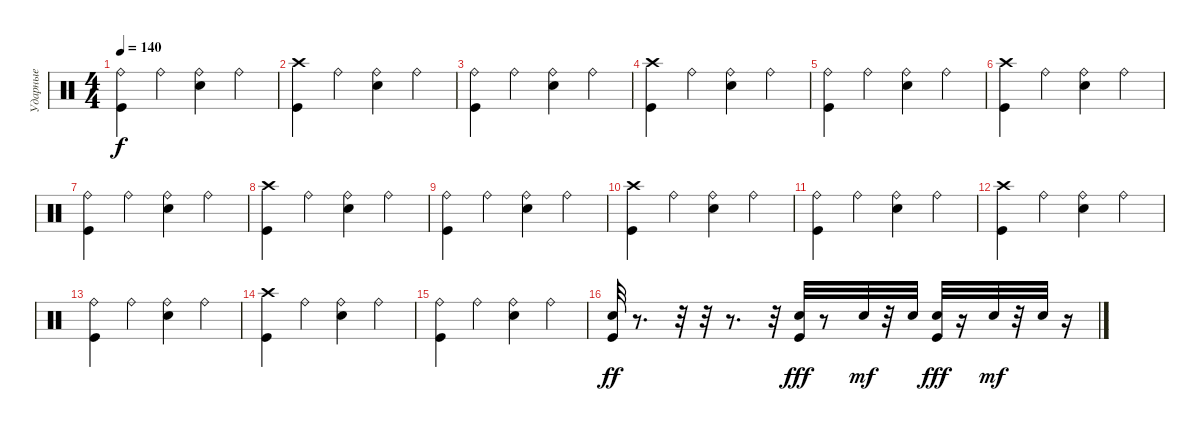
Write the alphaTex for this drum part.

\track ("Ударные" "Ударные") {instrument percussion}
\staff {score}
\articulation defaults
\ts (4 4)
\tempo 140
\clef neutral
\ks c
("Ride (bell)" "Kick (hit)").4{dy f} "Ride (bell)".4 ("Ride (bell)" "Electric Snare (hit)").4 "Ride (bell)".4 |
("Crash high (hit)" "Kick (hit)").4 "Ride (bell)".4 ("Ride (bell)" "Electric Snare (hit)").4 "Ride (bell)".4 |
("Ride (bell)" "Kick (hit)").4 "Ride (bell)".4 ("Ride (bell)" "Electric Snare (hit)").4 "Ride (bell)".4 |
("Crash high (hit)" "Kick (hit)").4 "Ride (bell)".4 ("Ride (bell)" "Electric Snare (hit)").4 "Ride (bell)".4 |
("Ride (bell)" "Kick (hit)").4 "Ride (bell)".4 ("Ride (bell)" "Electric Snare (hit)").4 "Ride (bell)".4 |
("Crash high (hit)" "Kick (hit)").4 "Ride (bell)".4 ("Ride (bell)" "Electric Snare (hit)").4 "Ride (bell)".4 |
("Ride (bell)" "Kick (hit)").4 "Ride (bell)".4 ("Ride (bell)" "Electric Snare (hit)").4 "Ride (bell)".4 |
("Crash high (hit)" "Kick (hit)").4 "Ride (bell)".4 ("Ride (bell)" "Electric Snare (hit)").4 "Ride (bell)".4 |
("Ride (bell)" "Kick (hit)").4 "Ride (bell)".4 ("Ride (bell)" "Electric Snare (hit)").4 "Ride (bell)".4 |
("Crash high (hit)" "Kick (hit)").4 "Ride (bell)".4 ("Ride (bell)" "Electric Snare (hit)").4 "Ride (bell)".4 |
("Ride (bell)" "Kick (hit)").4 "Ride (bell)".4 ("Ride (bell)" "Electric Snare (hit)").4 "Ride (bell)".4 |
("Crash high (hit)" "Kick (hit)").4 "Ride (bell)".4 ("Ride (bell)" "Electric Snare (hit)").4 "Ride (bell)".4 |
("Ride (bell)" "Kick (hit)").4 "Ride (bell)".4 ("Ride (bell)" "Electric Snare (hit)").4 "Ride (bell)".4 |
("Crash high (hit)" "Kick (hit)").4 "Ride (bell)".4 ("Ride (bell)" "Electric Snare (hit)").4 "Ride (bell)".4 |
("Ride (bell)" "Kick (hit)").4 "Ride (bell)".4 ("Ride (bell)" "Electric Snare (hit)").4 "Ride (bell)".4 |
("Kick (hit)" "Electric Snare (hit)").32{dy ff} r.8{d} r.32 r.32 r.8{d} r.32 ("Kick (hit)" "Electric Snare (hit)").32{dy fff} r.8 "Electric Snare (hit)".32{dy mf} r.32 "Electric Snare (hit)".32 ("Kick (hit)" "Electric Snare (hit)").32{dy fff} r.16 "Electric Snare (hit)".32{dy mf} r.32 "Electric Snare (hit)".32 r.16
